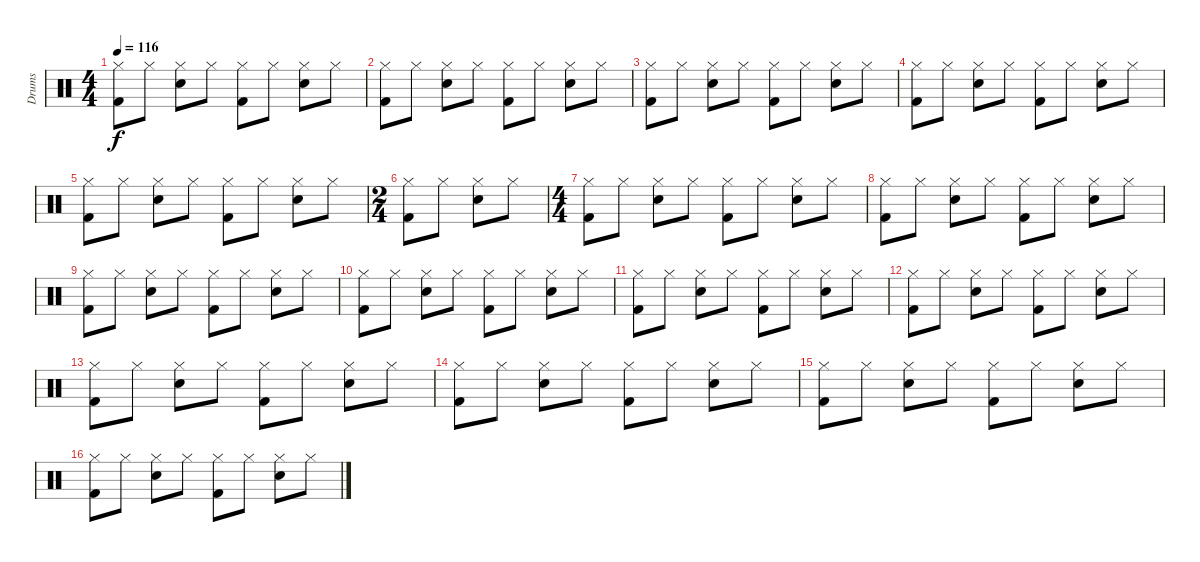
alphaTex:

\track ("Drums" "Drums") {instrument percussion}
\staff {score}
\articulation defaults
\ts (4 4)
\tempo 116
\clef neutral
\ks c
("Hi-Hat (closed)" "Kick (hit) 2").8{dy f} "Hi-Hat (closed)".8 ("Hi-Hat (closed)" "Snare (hit) 2").8 "Hi-Hat (closed)".8 ("Hi-Hat (closed)" "Kick (hit) 2").8 "Hi-Hat (closed)".8 ("Hi-Hat (closed)" "Snare (hit) 2").8 "Hi-Hat (closed)".8 |
("Hi-Hat (closed)" "Kick (hit) 2").8 "Hi-Hat (closed)".8 ("Hi-Hat (closed)" "Snare (hit) 2").8 "Hi-Hat (closed)".8 ("Hi-Hat (closed)" "Kick (hit) 2").8 "Hi-Hat (closed)".8 ("Hi-Hat (closed)" "Snare (hit) 2").8 "Hi-Hat (closed)".8 |
("Hi-Hat (closed)" "Kick (hit) 2").8 "Hi-Hat (closed)".8 ("Hi-Hat (closed)" "Snare (hit) 2").8 "Hi-Hat (closed)".8 ("Hi-Hat (closed)" "Kick (hit) 2").8 "Hi-Hat (closed)".8 ("Hi-Hat (closed)" "Snare (hit) 2").8 "Hi-Hat (closed)".8 |
("Hi-Hat (closed)" "Kick (hit) 2").8 "Hi-Hat (closed)".8 ("Hi-Hat (closed)" "Snare (hit) 2").8 "Hi-Hat (closed)".8 ("Hi-Hat (closed)" "Kick (hit) 2").8 "Hi-Hat (closed)".8 ("Hi-Hat (closed)" "Snare (hit) 2").8 "Hi-Hat (closed)".8 |
("Hi-Hat (closed)" "Kick (hit) 2").8 "Hi-Hat (closed)".8 ("Hi-Hat (closed)" "Snare (hit) 2").8 "Hi-Hat (closed)".8 ("Hi-Hat (closed)" "Kick (hit) 2").8 "Hi-Hat (closed)".8 ("Hi-Hat (closed)" "Snare (hit) 2").8 "Hi-Hat (closed)".8 |
\ts (2 4)
("Hi-Hat (closed)" "Kick (hit) 2").8 "Hi-Hat (closed)".8 ("Hi-Hat (closed)" "Snare (hit) 2").8 "Hi-Hat (closed)".8 |
\ts (4 4)
("Hi-Hat (closed)" "Kick (hit) 2").8 "Hi-Hat (closed)".8 ("Hi-Hat (closed)" "Snare (hit) 2").8 "Hi-Hat (closed)".8 ("Hi-Hat (closed)" "Kick (hit) 2").8 "Hi-Hat (closed)".8 ("Hi-Hat (closed)" "Snare (hit) 2").8 "Hi-Hat (closed)".8 |
("Hi-Hat (closed)" "Kick (hit) 2").8 "Hi-Hat (closed)".8 ("Hi-Hat (closed)" "Snare (hit) 2").8 "Hi-Hat (closed)".8 ("Hi-Hat (closed)" "Kick (hit) 2").8 "Hi-Hat (closed)".8 ("Hi-Hat (closed)" "Snare (hit) 2").8 "Hi-Hat (closed)".8 |
("Hi-Hat (closed)" "Kick (hit) 2").8 "Hi-Hat (closed)".8 ("Hi-Hat (closed)" "Snare (hit) 2").8 "Hi-Hat (closed)".8 ("Hi-Hat (closed)" "Kick (hit) 2").8 "Hi-Hat (closed)".8 ("Hi-Hat (closed)" "Snare (hit) 2").8 "Hi-Hat (closed)".8 |
("Hi-Hat (closed)" "Kick (hit) 2").8 "Hi-Hat (closed)".8 ("Hi-Hat (closed)" "Snare (hit) 2").8 "Hi-Hat (closed)".8 ("Hi-Hat (closed)" "Kick (hit) 2").8 "Hi-Hat (closed)".8 ("Hi-Hat (closed)" "Snare (hit) 2").8 "Hi-Hat (closed)".8 |
("Hi-Hat (closed)" "Kick (hit) 2").8 "Hi-Hat (closed)".8 ("Hi-Hat (closed)" "Snare (hit) 2").8 "Hi-Hat (closed)".8 ("Hi-Hat (closed)" "Kick (hit) 2").8 "Hi-Hat (closed)".8 ("Hi-Hat (closed)" "Snare (hit) 2").8 "Hi-Hat (closed)".8 |
("Hi-Hat (closed)" "Kick (hit) 2").8 "Hi-Hat (closed)".8 ("Hi-Hat (closed)" "Snare (hit) 2").8 "Hi-Hat (closed)".8 ("Hi-Hat (closed)" "Kick (hit) 2").8 "Hi-Hat (closed)".8 ("Hi-Hat (closed)" "Snare (hit) 2").8 "Hi-Hat (closed)".8 |
("Hi-Hat (closed)" "Kick (hit) 2").8 "Hi-Hat (closed)".8 ("Hi-Hat (closed)" "Snare (hit) 2").8 "Hi-Hat (closed)".8 ("Hi-Hat (closed)" "Kick (hit) 2").8 "Hi-Hat (closed)".8 ("Hi-Hat (closed)" "Snare (hit) 2").8 "Hi-Hat (closed)".8 |
("Hi-Hat (closed)" "Kick (hit) 2").8 "Hi-Hat (closed)".8 ("Hi-Hat (closed)" "Snare (hit) 2").8 "Hi-Hat (closed)".8 ("Hi-Hat (closed)" "Kick (hit) 2").8 "Hi-Hat (closed)".8 ("Hi-Hat (closed)" "Snare (hit) 2").8 "Hi-Hat (closed)".8 |
("Hi-Hat (closed)" "Kick (hit) 2").8 "Hi-Hat (closed)".8 ("Hi-Hat (closed)" "Snare (hit) 2").8 "Hi-Hat (closed)".8 ("Hi-Hat (closed)" "Kick (hit) 2").8 "Hi-Hat (closed)".8 ("Hi-Hat (closed)" "Snare (hit) 2").8 "Hi-Hat (closed)".8 |
("Hi-Hat (closed)" "Kick (hit) 2").8 "Hi-Hat (closed)".8 ("Hi-Hat (closed)" "Snare (hit) 2").8 "Hi-Hat (closed)".8 ("Hi-Hat (closed)" "Kick (hit) 2").8 "Hi-Hat (closed)".8 ("Hi-Hat (closed)" "Snare (hit) 2").8 "Hi-Hat (closed)".8
